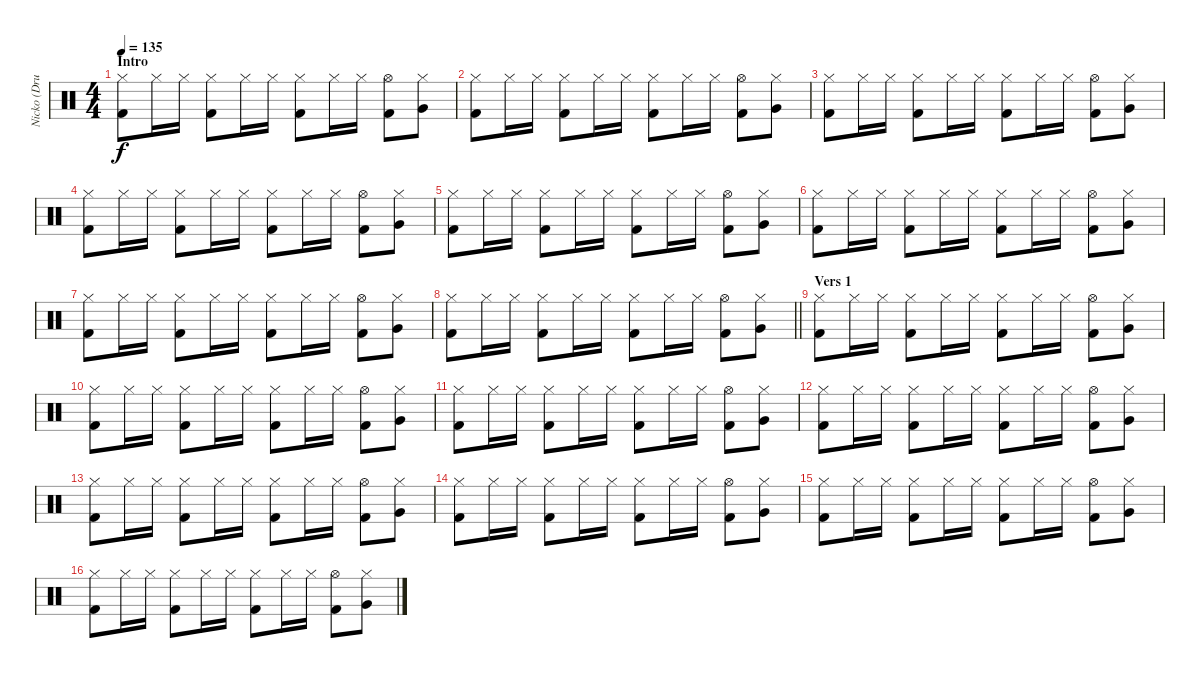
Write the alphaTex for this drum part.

\track ("Nicko (Drums)" "Nicko (Dru") {instrument percussion}
\staff {score}
\articulation defaults
\ts (4 4)
\section ("" "Intro")
\tempo 135
\clef neutral
\ks c
("Hi-Hat (closed)" "Kick (hit) 2").8{dy f} "Hi-Hat (closed)".16 "Hi-Hat (closed)".16 ("Hi-Hat (closed)" "Kick (hit) 2").8 "Hi-Hat (closed)".16 "Hi-Hat (closed)".16 ("Hi-Hat (closed)" "Kick (hit) 2").8 "Hi-Hat (closed)".16 "Hi-Hat (closed)".16 ("Hi-Hat (open)" "Kick (hit) 2").8 ("Hi-Hat (closed)" "Very Low Tom (hit)").8 |
("Hi-Hat (closed)" "Kick (hit) 2").8 "Hi-Hat (closed)".16 "Hi-Hat (closed)".16 ("Hi-Hat (closed)" "Kick (hit) 2").8 "Hi-Hat (closed)".16 "Hi-Hat (closed)".16 ("Hi-Hat (closed)" "Kick (hit) 2").8 "Hi-Hat (closed)".16 "Hi-Hat (closed)".16 ("Hi-Hat (open)" "Kick (hit) 2").8 ("Hi-Hat (closed)" "Very Low Tom (hit)").8 |
("Hi-Hat (closed)" "Kick (hit) 2").8 "Hi-Hat (closed)".16 "Hi-Hat (closed)".16 ("Hi-Hat (closed)" "Kick (hit) 2").8 "Hi-Hat (closed)".16 "Hi-Hat (closed)".16 ("Hi-Hat (closed)" "Kick (hit) 2").8 "Hi-Hat (closed)".16 "Hi-Hat (closed)".16 ("Hi-Hat (open)" "Kick (hit) 2").8 ("Hi-Hat (closed)" "Very Low Tom (hit)").8 |
("Hi-Hat (closed)" "Kick (hit) 2").8 "Hi-Hat (closed)".16 "Hi-Hat (closed)".16 ("Hi-Hat (closed)" "Kick (hit) 2").8 "Hi-Hat (closed)".16 "Hi-Hat (closed)".16 ("Hi-Hat (closed)" "Kick (hit) 2").8 "Hi-Hat (closed)".16 "Hi-Hat (closed)".16 ("Hi-Hat (open)" "Kick (hit) 2").8 ("Hi-Hat (closed)" "Very Low Tom (hit)").8 |
("Hi-Hat (closed)" "Kick (hit) 2").8 "Hi-Hat (closed)".16 "Hi-Hat (closed)".16 ("Hi-Hat (closed)" "Kick (hit) 2").8 "Hi-Hat (closed)".16 "Hi-Hat (closed)".16 ("Hi-Hat (closed)" "Kick (hit) 2").8 "Hi-Hat (closed)".16 "Hi-Hat (closed)".16 ("Hi-Hat (open)" "Kick (hit) 2").8 ("Hi-Hat (closed)" "Very Low Tom (hit)").8 |
("Hi-Hat (closed)" "Kick (hit) 2").8 "Hi-Hat (closed)".16 "Hi-Hat (closed)".16 ("Hi-Hat (closed)" "Kick (hit) 2").8 "Hi-Hat (closed)".16 "Hi-Hat (closed)".16 ("Hi-Hat (closed)" "Kick (hit) 2").8 "Hi-Hat (closed)".16 "Hi-Hat (closed)".16 ("Hi-Hat (open)" "Kick (hit) 2").8 ("Hi-Hat (closed)" "Very Low Tom (hit)").8 |
("Hi-Hat (closed)" "Kick (hit) 2").8 "Hi-Hat (closed)".16 "Hi-Hat (closed)".16 ("Hi-Hat (closed)" "Kick (hit) 2").8 "Hi-Hat (closed)".16 "Hi-Hat (closed)".16 ("Hi-Hat (closed)" "Kick (hit) 2").8 "Hi-Hat (closed)".16 "Hi-Hat (closed)".16 ("Hi-Hat (open)" "Kick (hit) 2").8 ("Hi-Hat (closed)" "Very Low Tom (hit)").8 |
\barLineRight lightlight
("Hi-Hat (closed)" "Kick (hit) 2").8 "Hi-Hat (closed)".16 "Hi-Hat (closed)".16 ("Hi-Hat (closed)" "Kick (hit) 2").8 "Hi-Hat (closed)".16 "Hi-Hat (closed)".16 ("Hi-Hat (closed)" "Kick (hit) 2").8 "Hi-Hat (closed)".16 "Hi-Hat (closed)".16 ("Hi-Hat (open)" "Kick (hit) 2").8 ("Hi-Hat (closed)" "Very Low Tom (hit)").8 |
\section ("" "Vers 1")
("Hi-Hat (closed)" "Kick (hit) 2").8 "Hi-Hat (closed)".16 "Hi-Hat (closed)".16 ("Hi-Hat (closed)" "Kick (hit) 2").8 "Hi-Hat (closed)".16 "Hi-Hat (closed)".16 ("Hi-Hat (closed)" "Kick (hit) 2").8 "Hi-Hat (closed)".16 "Hi-Hat (closed)".16 ("Hi-Hat (open)" "Kick (hit) 2").8 ("Hi-Hat (closed)" "Very Low Tom (hit)").8 |
("Hi-Hat (closed)" "Kick (hit) 2").8 "Hi-Hat (closed)".16 "Hi-Hat (closed)".16 ("Hi-Hat (closed)" "Kick (hit) 2").8 "Hi-Hat (closed)".16 "Hi-Hat (closed)".16 ("Hi-Hat (closed)" "Kick (hit) 2").8 "Hi-Hat (closed)".16 "Hi-Hat (closed)".16 ("Hi-Hat (open)" "Kick (hit) 2").8 ("Hi-Hat (closed)" "Very Low Tom (hit)").8 |
("Hi-Hat (closed)" "Kick (hit) 2").8 "Hi-Hat (closed)".16 "Hi-Hat (closed)".16 ("Hi-Hat (closed)" "Kick (hit) 2").8 "Hi-Hat (closed)".16 "Hi-Hat (closed)".16 ("Hi-Hat (closed)" "Kick (hit) 2").8 "Hi-Hat (closed)".16 "Hi-Hat (closed)".16 ("Hi-Hat (open)" "Kick (hit) 2").8 ("Hi-Hat (closed)" "Very Low Tom (hit)").8 |
("Hi-Hat (closed)" "Kick (hit) 2").8 "Hi-Hat (closed)".16 "Hi-Hat (closed)".16 ("Hi-Hat (closed)" "Kick (hit) 2").8 "Hi-Hat (closed)".16 "Hi-Hat (closed)".16 ("Hi-Hat (closed)" "Kick (hit) 2").8 "Hi-Hat (closed)".16 "Hi-Hat (closed)".16 ("Hi-Hat (open)" "Kick (hit) 2").8 ("Hi-Hat (closed)" "Very Low Tom (hit)").8 |
("Hi-Hat (closed)" "Kick (hit) 2").8 "Hi-Hat (closed)".16 "Hi-Hat (closed)".16 ("Hi-Hat (closed)" "Kick (hit) 2").8 "Hi-Hat (closed)".16 "Hi-Hat (closed)".16 ("Hi-Hat (closed)" "Kick (hit) 2").8 "Hi-Hat (closed)".16 "Hi-Hat (closed)".16 ("Hi-Hat (open)" "Kick (hit) 2").8 ("Hi-Hat (closed)" "Very Low Tom (hit)").8 |
("Hi-Hat (closed)" "Kick (hit) 2").8 "Hi-Hat (closed)".16 "Hi-Hat (closed)".16 ("Hi-Hat (closed)" "Kick (hit) 2").8 "Hi-Hat (closed)".16 "Hi-Hat (closed)".16 ("Hi-Hat (closed)" "Kick (hit) 2").8 "Hi-Hat (closed)".16 "Hi-Hat (closed)".16 ("Hi-Hat (open)" "Kick (hit) 2").8 ("Hi-Hat (closed)" "Very Low Tom (hit)").8 |
("Hi-Hat (closed)" "Kick (hit) 2").8 "Hi-Hat (closed)".16 "Hi-Hat (closed)".16 ("Hi-Hat (closed)" "Kick (hit) 2").8 "Hi-Hat (closed)".16 "Hi-Hat (closed)".16 ("Hi-Hat (closed)" "Kick (hit) 2").8 "Hi-Hat (closed)".16 "Hi-Hat (closed)".16 ("Hi-Hat (open)" "Kick (hit) 2").8 ("Hi-Hat (closed)" "Very Low Tom (hit)").8 |
("Hi-Hat (closed)" "Kick (hit) 2").8 "Hi-Hat (closed)".16 "Hi-Hat (closed)".16 ("Hi-Hat (closed)" "Kick (hit) 2").8 "Hi-Hat (closed)".16 "Hi-Hat (closed)".16 ("Hi-Hat (closed)" "Kick (hit) 2").8 "Hi-Hat (closed)".16 "Hi-Hat (closed)".16 ("Hi-Hat (open)" "Kick (hit) 2").8 ("Hi-Hat (closed)" "Very Low Tom (hit)").8
